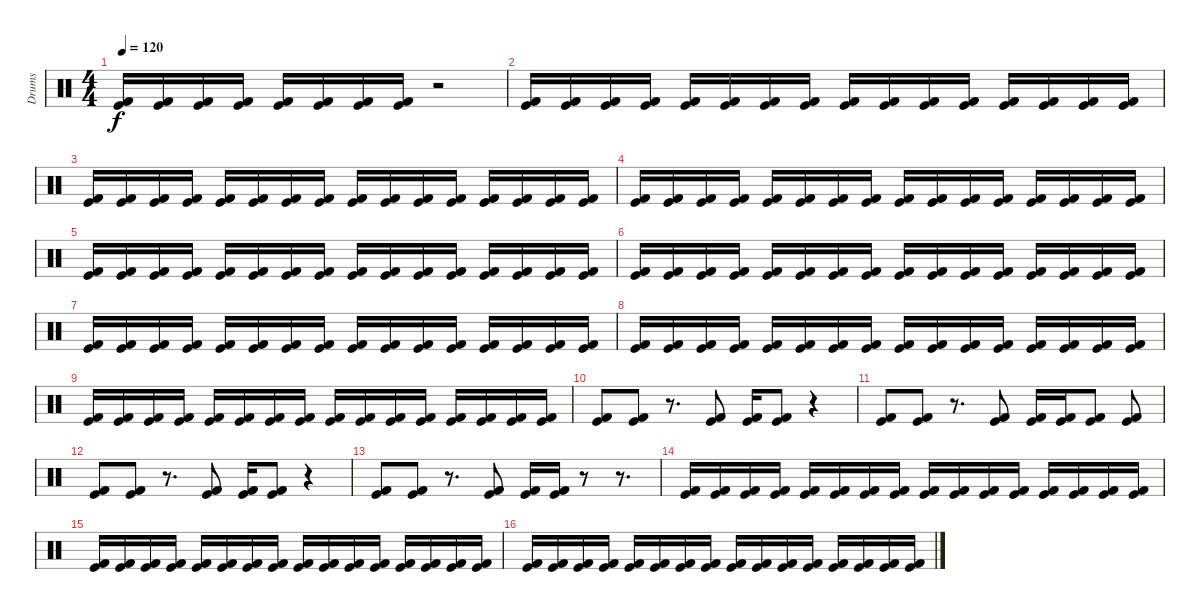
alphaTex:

\track ("Drums" "Drums") {instrument percussion}
\staff {score}
\articulation defaults
\ts (4 4)
\tempo 120
\clef neutral
\ks c
("Kick (hit) 2" "Kick (hit)").16{dy f} ("Kick (hit) 2" "Kick (hit)").16 ("Kick (hit) 2" "Kick (hit)").16 ("Kick (hit) 2" "Kick (hit)").16 ("Kick (hit) 2" "Kick (hit)").16 ("Kick (hit) 2" "Kick (hit)").16 ("Kick (hit) 2" "Kick (hit)").16 ("Kick (hit) 2" "Kick (hit)").16 r.2 |
("Kick (hit) 2" "Kick (hit)").16 ("Kick (hit) 2" "Kick (hit)").16 ("Kick (hit) 2" "Kick (hit)").16 ("Kick (hit) 2" "Kick (hit)").16 ("Kick (hit) 2" "Kick (hit)").16 ("Kick (hit) 2" "Kick (hit)").16 ("Kick (hit) 2" "Kick (hit)").16 ("Kick (hit) 2" "Kick (hit)").16 ("Kick (hit) 2" "Kick (hit)").16 ("Kick (hit) 2" "Kick (hit)").16 ("Kick (hit) 2" "Kick (hit)").16 ("Kick (hit) 2" "Kick (hit)").16 ("Kick (hit) 2" "Kick (hit)").16 ("Kick (hit) 2" "Kick (hit)").16 ("Kick (hit) 2" "Kick (hit)").16 ("Kick (hit) 2" "Kick (hit)").16 |
("Kick (hit) 2" "Kick (hit)").16 ("Kick (hit) 2" "Kick (hit)").16 ("Kick (hit) 2" "Kick (hit)").16 ("Kick (hit) 2" "Kick (hit)").16 ("Kick (hit) 2" "Kick (hit)").16 ("Kick (hit) 2" "Kick (hit)").16 ("Kick (hit) 2" "Kick (hit)").16 ("Kick (hit) 2" "Kick (hit)").16 ("Kick (hit) 2" "Kick (hit)").16 ("Kick (hit) 2" "Kick (hit)").16 ("Kick (hit) 2" "Kick (hit)").16 ("Kick (hit) 2" "Kick (hit)").16 ("Kick (hit) 2" "Kick (hit)").16 ("Kick (hit) 2" "Kick (hit)").16 ("Kick (hit) 2" "Kick (hit)").16 ("Kick (hit) 2" "Kick (hit)").16 |
("Kick (hit) 2" "Kick (hit)").16 ("Kick (hit) 2" "Kick (hit)").16 ("Kick (hit) 2" "Kick (hit)").16 ("Kick (hit) 2" "Kick (hit)").16 ("Kick (hit) 2" "Kick (hit)").16 ("Kick (hit) 2" "Kick (hit)").16 ("Kick (hit) 2" "Kick (hit)").16 ("Kick (hit) 2" "Kick (hit)").16 ("Kick (hit) 2" "Kick (hit)").16 ("Kick (hit) 2" "Kick (hit)").16 ("Kick (hit) 2" "Kick (hit)").16 ("Kick (hit) 2" "Kick (hit)").16 ("Kick (hit) 2" "Kick (hit)").16 ("Kick (hit) 2" "Kick (hit)").16 ("Kick (hit) 2" "Kick (hit)").16 ("Kick (hit) 2" "Kick (hit)").16 |
("Kick (hit) 2" "Kick (hit)").16 ("Kick (hit) 2" "Kick (hit)").16 ("Kick (hit) 2" "Kick (hit)").16 ("Kick (hit) 2" "Kick (hit)").16 ("Kick (hit) 2" "Kick (hit)").16 ("Kick (hit) 2" "Kick (hit)").16 ("Kick (hit) 2" "Kick (hit)").16 ("Kick (hit) 2" "Kick (hit)").16 ("Kick (hit) 2" "Kick (hit)").16 ("Kick (hit) 2" "Kick (hit)").16 ("Kick (hit) 2" "Kick (hit)").16 ("Kick (hit) 2" "Kick (hit)").16 ("Kick (hit) 2" "Kick (hit)").16 ("Kick (hit) 2" "Kick (hit)").16 ("Kick (hit) 2" "Kick (hit)").16 ("Kick (hit) 2" "Kick (hit)").16 |
("Kick (hit) 2" "Kick (hit)").16 ("Kick (hit) 2" "Kick (hit)").16 ("Kick (hit) 2" "Kick (hit)").16 ("Kick (hit) 2" "Kick (hit)").16 ("Kick (hit) 2" "Kick (hit)").16 ("Kick (hit) 2" "Kick (hit)").16 ("Kick (hit) 2" "Kick (hit)").16 ("Kick (hit) 2" "Kick (hit)").16 ("Kick (hit) 2" "Kick (hit)").16 ("Kick (hit) 2" "Kick (hit)").16 ("Kick (hit) 2" "Kick (hit)").16 ("Kick (hit) 2" "Kick (hit)").16 ("Kick (hit) 2" "Kick (hit)").16 ("Kick (hit) 2" "Kick (hit)").16 ("Kick (hit) 2" "Kick (hit)").16 ("Kick (hit) 2" "Kick (hit)").16 |
("Kick (hit) 2" "Kick (hit)").16 ("Kick (hit) 2" "Kick (hit)").16 ("Kick (hit) 2" "Kick (hit)").16 ("Kick (hit) 2" "Kick (hit)").16 ("Kick (hit) 2" "Kick (hit)").16 ("Kick (hit) 2" "Kick (hit)").16 ("Kick (hit) 2" "Kick (hit)").16 ("Kick (hit) 2" "Kick (hit)").16 ("Kick (hit) 2" "Kick (hit)").16 ("Kick (hit) 2" "Kick (hit)").16 ("Kick (hit) 2" "Kick (hit)").16 ("Kick (hit) 2" "Kick (hit)").16 ("Kick (hit) 2" "Kick (hit)").16 ("Kick (hit) 2" "Kick (hit)").16 ("Kick (hit) 2" "Kick (hit)").16 ("Kick (hit) 2" "Kick (hit)").16 |
("Kick (hit) 2" "Kick (hit)").16 ("Kick (hit) 2" "Kick (hit)").16 ("Kick (hit) 2" "Kick (hit)").16 ("Kick (hit) 2" "Kick (hit)").16 ("Kick (hit) 2" "Kick (hit)").16 ("Kick (hit) 2" "Kick (hit)").16 ("Kick (hit) 2" "Kick (hit)").16 ("Kick (hit) 2" "Kick (hit)").16 ("Kick (hit) 2" "Kick (hit)").16 ("Kick (hit) 2" "Kick (hit)").16 ("Kick (hit) 2" "Kick (hit)").16 ("Kick (hit) 2" "Kick (hit)").16 ("Kick (hit) 2" "Kick (hit)").16 ("Kick (hit) 2" "Kick (hit)").16 ("Kick (hit) 2" "Kick (hit)").16 ("Kick (hit) 2" "Kick (hit)").16 |
("Kick (hit) 2" "Kick (hit)").16 ("Kick (hit) 2" "Kick (hit)").16 ("Kick (hit) 2" "Kick (hit)").16 ("Kick (hit) 2" "Kick (hit)").16 ("Kick (hit) 2" "Kick (hit)").16 ("Kick (hit) 2" "Kick (hit)").16 ("Kick (hit) 2" "Kick (hit)").16 ("Kick (hit) 2" "Kick (hit)").16 ("Kick (hit) 2" "Kick (hit)").16 ("Kick (hit) 2" "Kick (hit)").16 ("Kick (hit) 2" "Kick (hit)").16 ("Kick (hit) 2" "Kick (hit)").16 ("Kick (hit) 2" "Kick (hit)").16 ("Kick (hit) 2" "Kick (hit)").16 ("Kick (hit) 2" "Kick (hit)").16 ("Kick (hit) 2" "Kick (hit)").16 |
("Kick (hit) 2" "Kick (hit)").8 ("Kick (hit) 2" "Kick (hit)").8 r.8{d} ("Kick (hit) 2" "Kick (hit)").8 ("Kick (hit) 2" "Kick (hit)").16 ("Kick (hit) 2" "Kick (hit)").8 r.4 |
("Kick (hit) 2" "Kick (hit)").8 ("Kick (hit) 2" "Kick (hit)").8 r.8{d} ("Kick (hit) 2" "Kick (hit)").8 ("Kick (hit) 2" "Kick (hit)").16 ("Kick (hit) 2" "Kick (hit)").16 ("Kick (hit) 2" "Kick (hit)").8 ("Kick (hit) 2" "Kick (hit)").8 |
("Kick (hit) 2" "Kick (hit)").8 ("Kick (hit) 2" "Kick (hit)").8 r.8{d} ("Kick (hit) 2" "Kick (hit)").8 ("Kick (hit) 2" "Kick (hit)").16 ("Kick (hit) 2" "Kick (hit)").8 r.4 |
("Kick (hit) 2" "Kick (hit)").8 ("Kick (hit) 2" "Kick (hit)").8 r.8{d} ("Kick (hit) 2" "Kick (hit)").8 ("Kick (hit) 2" "Kick (hit)").16 ("Kick (hit) 2" "Kick (hit)").16 r.8 r.8{d} |
("Kick (hit) 2" "Kick (hit)").16 ("Kick (hit) 2" "Kick (hit)").16 ("Kick (hit) 2" "Kick (hit)").16 ("Kick (hit) 2" "Kick (hit)").16 ("Kick (hit) 2" "Kick (hit)").16 ("Kick (hit) 2" "Kick (hit)").16 ("Kick (hit) 2" "Kick (hit)").16 ("Kick (hit) 2" "Kick (hit)").16 ("Kick (hit) 2" "Kick (hit)").16 ("Kick (hit) 2" "Kick (hit)").16 ("Kick (hit) 2" "Kick (hit)").16 ("Kick (hit) 2" "Kick (hit)").16 ("Kick (hit) 2" "Kick (hit)").16 ("Kick (hit) 2" "Kick (hit)").16 ("Kick (hit) 2" "Kick (hit)").16 ("Kick (hit) 2" "Kick (hit)").16 |
("Kick (hit) 2" "Kick (hit)").16 ("Kick (hit) 2" "Kick (hit)").16 ("Kick (hit) 2" "Kick (hit)").16 ("Kick (hit) 2" "Kick (hit)").16 ("Kick (hit) 2" "Kick (hit)").16 ("Kick (hit) 2" "Kick (hit)").16 ("Kick (hit) 2" "Kick (hit)").16 ("Kick (hit) 2" "Kick (hit)").16 ("Kick (hit) 2" "Kick (hit)").16 ("Kick (hit) 2" "Kick (hit)").16 ("Kick (hit) 2" "Kick (hit)").16 ("Kick (hit) 2" "Kick (hit)").16 ("Kick (hit) 2" "Kick (hit)").16 ("Kick (hit) 2" "Kick (hit)").16 ("Kick (hit) 2" "Kick (hit)").16 ("Kick (hit) 2" "Kick (hit)").16 |
("Kick (hit) 2" "Kick (hit)").16 ("Kick (hit) 2" "Kick (hit)").16 ("Kick (hit) 2" "Kick (hit)").16 ("Kick (hit) 2" "Kick (hit)").16 ("Kick (hit) 2" "Kick (hit)").16 ("Kick (hit) 2" "Kick (hit)").16 ("Kick (hit) 2" "Kick (hit)").16 ("Kick (hit) 2" "Kick (hit)").16 ("Kick (hit) 2" "Kick (hit)").16 ("Kick (hit) 2" "Kick (hit)").16 ("Kick (hit) 2" "Kick (hit)").16 ("Kick (hit) 2" "Kick (hit)").16 ("Kick (hit) 2" "Kick (hit)").16 ("Kick (hit) 2" "Kick (hit)").16 ("Kick (hit) 2" "Kick (hit)").16 ("Kick (hit) 2" "Kick (hit)").16
